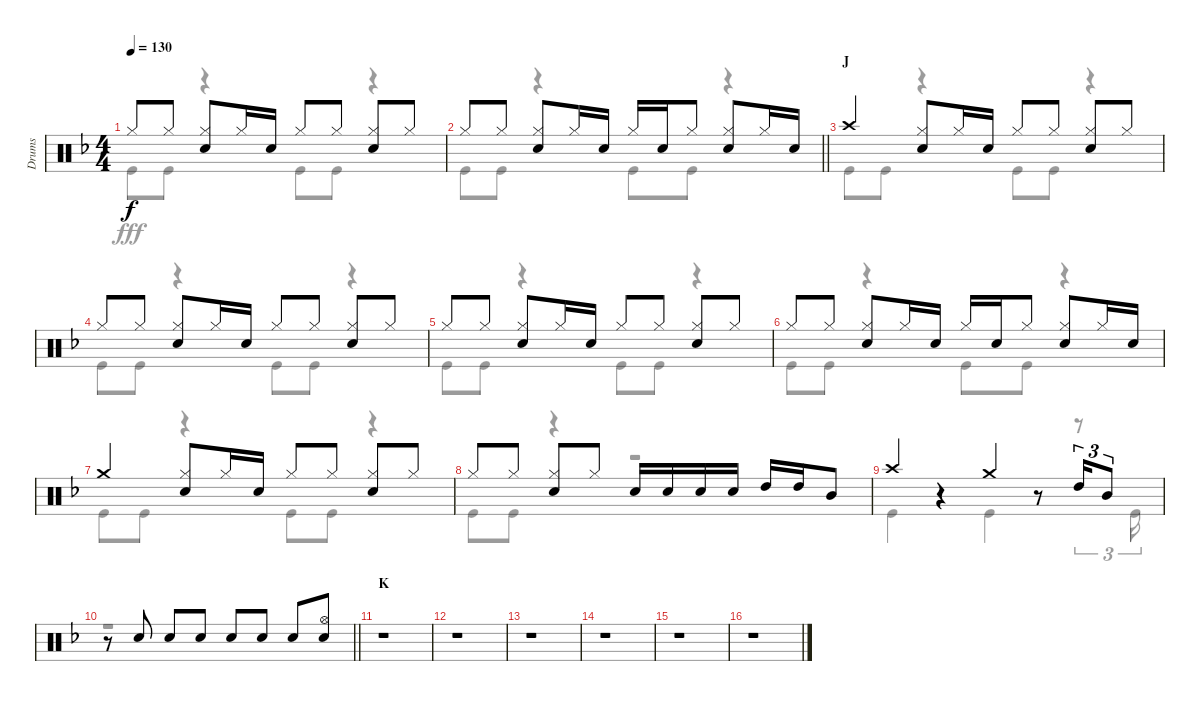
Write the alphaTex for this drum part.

\track ("Drums" "Drums") {instrument percussion}
\staff {score}
\articulation defaults
\voice
\ts (4 4)
\tempo 130
\clef neutral
\ks f "Hi-Hat (closed)".8{dy f} "Hi-Hat (closed)".8
("Hi-Hat (closed)" "Snare (hit) 2").8 "Hi-Hat (closed)".16 "Snare (hit) 2".16 "Hi-Hat (closed)".8 "Hi-Hat (closed)".8 ("Hi-Hat (closed)" "Snare (hit) 2").8 "Hi-Hat (closed)".8 |
\barLineRight lightlight "Hi-Hat (closed)".8 "Hi-Hat (closed)".8
("Hi-Hat (closed)" "Snare (hit) 2").8 "Hi-Hat (closed)".16 "Snare (hit) 2".16 "Hi-Hat (closed)".16 "Snare (hit) 2".16 "Hi-Hat (closed)".8 ("Hi-Hat (closed)" "Snare (hit) 2").8 "Hi-Hat (closed)".16 "Snare (hit) 2".16 |
\section ("" "J")
"Crash high (hit)".4 ("Hi-Hat (closed)" "Snare (hit) 2").8 "Hi-Hat (closed)".16 "Snare (hit) 2".16 "Hi-Hat (closed)".8 "Hi-Hat (closed)".8 ("Hi-Hat (closed)" "Snare (hit) 2").8 "Hi-Hat (closed)".8 |
"Hi-Hat (closed)".8 "Hi-Hat (closed)".8 ("Hi-Hat (closed)" "Snare (hit) 2").8 "Hi-Hat (closed)".16 "Snare (hit) 2".16 "Hi-Hat (closed)".8 "Hi-Hat (closed)".8 ("Hi-Hat (closed)" "Snare (hit) 2").8 "Hi-Hat (closed)".8 |
"Hi-Hat (closed)".8 "Hi-Hat (closed)".8 ("Hi-Hat (closed)" "Snare (hit) 2").8 "Hi-Hat (closed)".16 "Snare (hit) 2".16 "Hi-Hat (closed)".8 "Hi-Hat (closed)".8 ("Hi-Hat (closed)" "Snare (hit) 2").8 "Hi-Hat (closed)".8 |
"Hi-Hat (closed)".8 "Hi-Hat (closed)".8 ("Hi-Hat (closed)" "Snare (hit) 2").8 "Hi-Hat (closed)".16 "Snare (hit) 2".16 "Hi-Hat (closed)".16 "Snare (hit) 2".16 "Hi-Hat (closed)".8 ("Hi-Hat (closed)" "Snare (hit) 2").8 "Hi-Hat (closed)".16 "Snare (hit) 2".16 |
"Crash medium (hit)".4 ("Hi-Hat (closed)" "Snare (hit) 2").8 "Hi-Hat (closed)".16 "Snare (hit) 2".16 "Hi-Hat (closed)".8 "Hi-Hat (closed)".8 ("Hi-Hat (closed)" "Snare (hit) 2").8 "Hi-Hat (closed)".8 |
"Hi-Hat (closed)".8 "Hi-Hat (closed)".8 ("Hi-Hat (closed)" "Snare (hit) 2").8 "Hi-Hat (closed)".8 "Snare (hit) 2".16 "Snare (hit) 2".16 "Snare (hit) 2".16 "Snare (hit) 2".16 "High Tom (hit)".16 "High Tom (hit)".16 "Mid Tom (hit)".8 |
"Crash high (hit)".4 r.4 "Crash medium (hit)".4 r.8 "High Tom (hit)".16{tu (3 2)} "Mid Tom (hit)".8{tu (3 2)} |
\barLineRight lightlight
r.8 "Snare (hit) 2".8 "Snare (hit) 2".8 "Snare (hit) 2".8 "Snare (hit) 2".8 "Snare (hit) 2".8 "Snare (hit) 2".8 ("Hi-Hat (open)" "Snare (hit) 2").8 |
\section ("" "K")
r.1 |
r.1 |
r.1 |
r.1 |
r.1 |
r.1
\voice
\clef neutral
\ottava regular
\simile none
\ks f "Kick (hit)".8{dy fff} "Kick (hit)".8
r.4 "Kick (hit)".8 "Kick (hit)".8 r.4 |
\barLineRight lightlight "Kick (hit)".8 "Kick (hit)".8
r.4 "Kick (hit)".8 "Kick (hit)".8 r.4 |
"Kick (hit)".8 "Kick (hit)".8 r.4 "Kick (hit)".8 "Kick (hit)".8 r.4 |
"Kick (hit)".8 "Kick (hit)".8 r.4 "Kick (hit)".8 "Kick (hit)".8 r.4 |
"Kick (hit)".8 "Kick (hit)".8 r.4 "Kick (hit)".8 "Kick (hit)".8 r.4 |
"Kick (hit)".8 "Kick (hit)".8 r.4 "Kick (hit)".8 "Kick (hit)".8 r.4 |
"Kick (hit)".8 "Kick (hit)".8 r.4 "Kick (hit)".8 "Kick (hit)".8 r.4 |
"Kick (hit)".8 "Kick (hit)".8 r.4 r.2 |
"Kick (hit)".4 r.4 "Kick (hit)".4 r.8 r.8{tu (3 2)} "Kick (hit)".16{tu (3 2)} |
\barLineRight lightlight
r.1 |
r.1 |
r.1 |
r.1 |
r.1 |
r.1 |
r.1
